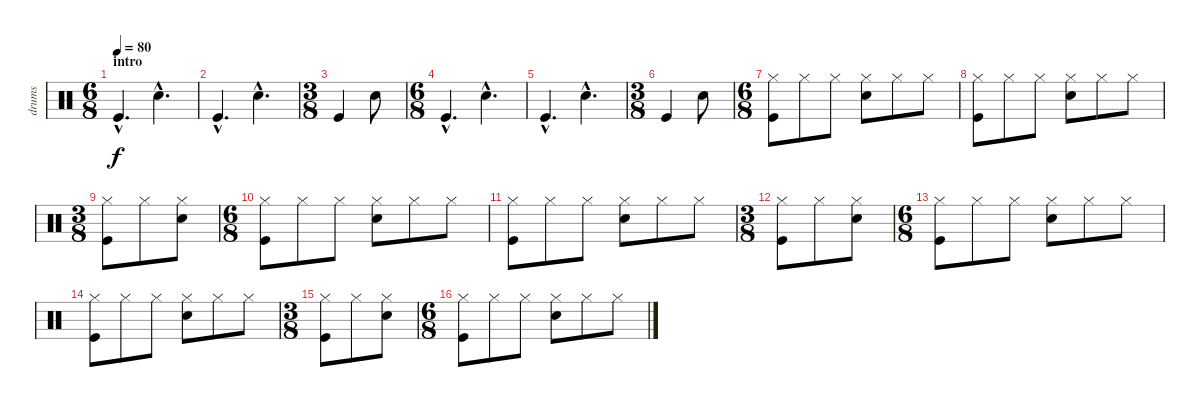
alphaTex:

\track ("drums" "drums") {instrument percussion}
\staff {score}
\articulation defaults
\ts (6 8)
\section ("" "intro")
\tempo 80
\clef neutral
\ks c "Kick (hit)"{hac}.4{d dy f} "Snare (hit) 2"{hac}.4{d}
|
"Kick (hit)"{hac}.4{d} "Snare (hit) 2"{hac}.4{d} |
\ts (3 8)
"Kick (hit)".4 "Snare (hit) 2".8 |
\ts (6 8)
"Kick (hit)"{hac}.4{d} "Snare (hit) 2"{hac}.4{d} |
"Kick (hit)"{hac}.4{d} "Snare (hit) 2"{hac}.4{d} |
\ts (3 8)
"Kick (hit)".4 "Snare (hit) 2".8 |
\ts (6 8)
("Hi-Hat (closed)" "Kick (hit)").8 "Hi-Hat (closed)".8 "Hi-Hat (closed)".8 ("Hi-Hat (closed)" "Snare (hit) 2").8 "Hi-Hat (closed)".8 "Hi-Hat (closed)".8 |
("Hi-Hat (closed)" "Kick (hit)").8 "Hi-Hat (closed)".8 "Hi-Hat (closed)".8 ("Hi-Hat (closed)" "Snare (hit) 2").8 "Hi-Hat (closed)".8 "Hi-Hat (closed)".8 |
\ts (3 8)
("Hi-Hat (closed)" "Kick (hit)").8 "Hi-Hat (closed)".8 ("Hi-Hat (closed)" "Snare (hit) 2").8 |
\ts (6 8)
("Hi-Hat (closed)" "Kick (hit)").8 "Hi-Hat (closed)".8 "Hi-Hat (closed)".8 ("Hi-Hat (closed)" "Snare (hit) 2").8 "Hi-Hat (closed)".8 "Hi-Hat (closed)".8 |
("Hi-Hat (closed)" "Kick (hit)").8 "Hi-Hat (closed)".8 "Hi-Hat (closed)".8 ("Hi-Hat (closed)" "Snare (hit) 2").8 "Hi-Hat (closed)".8 "Hi-Hat (closed)".8 |
\ts (3 8)
("Hi-Hat (closed)" "Kick (hit)").8 "Hi-Hat (closed)".8 ("Hi-Hat (closed)" "Snare (hit) 2").8 |
\ts (6 8)
\section ("" "")
("Hi-Hat (closed)" "Kick (hit)").8 "Hi-Hat (closed)".8 "Hi-Hat (closed)".8 ("Hi-Hat (closed)" "Snare (hit) 2").8 "Hi-Hat (closed)".8 "Hi-Hat (closed)".8 |
("Hi-Hat (closed)" "Kick (hit)").8 "Hi-Hat (closed)".8 "Hi-Hat (closed)".8 ("Hi-Hat (closed)" "Snare (hit) 2").8 "Hi-Hat (closed)".8 "Hi-Hat (closed)".8 |
\ts (3 8)
("Hi-Hat (closed)" "Kick (hit)").8 "Hi-Hat (closed)".8 ("Hi-Hat (closed)" "Snare (hit) 2").8 |
\ts (6 8)
("Hi-Hat (closed)" "Kick (hit)").8 "Hi-Hat (closed)".8 "Hi-Hat (closed)".8 ("Hi-Hat (closed)" "Snare (hit) 2").8 "Hi-Hat (closed)".8 "Hi-Hat (closed)".8
